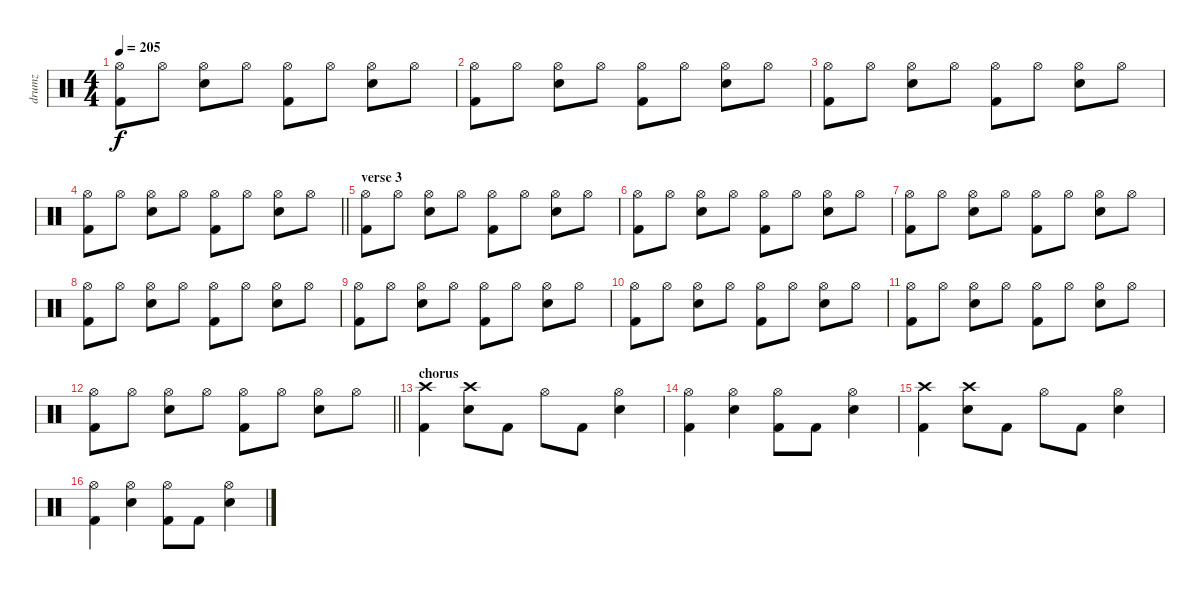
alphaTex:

\track ("drumz" "drumz") {instrument percussion}
\staff {score}
\articulation defaults
\ts (4 4)
\tempo 205
\clef neutral
\ks c
("Hi-Hat (open)" "Kick (hit) 2").8{dy f} "Hi-Hat (open)".8 ("Hi-Hat (open)" "Electric Snare (hit)").8 "Hi-Hat (open)".8 ("Hi-Hat (open)" "Kick (hit) 2").8 "Hi-Hat (open)".8 ("Hi-Hat (open)" "Electric Snare (hit)").8 "Hi-Hat (open)".8 |
("Hi-Hat (open)" "Kick (hit) 2").8 "Hi-Hat (open)".8 ("Hi-Hat (open)" "Electric Snare (hit)").8 "Hi-Hat (open)".8 ("Hi-Hat (open)" "Kick (hit) 2").8 "Hi-Hat (open)".8 ("Hi-Hat (open)" "Electric Snare (hit)").8 "Hi-Hat (open)".8 |
("Hi-Hat (open)" "Kick (hit) 2").8 "Hi-Hat (open)".8 ("Hi-Hat (open)" "Electric Snare (hit)").8 "Hi-Hat (open)".8 ("Hi-Hat (open)" "Kick (hit) 2").8 "Hi-Hat (open)".8 ("Hi-Hat (open)" "Electric Snare (hit)").8 "Hi-Hat (open)".8 |
\barLineRight lightlight
("Hi-Hat (open)" "Kick (hit) 2").8 "Hi-Hat (open)".8 ("Hi-Hat (open)" "Electric Snare (hit)").8 "Hi-Hat (open)".8 ("Hi-Hat (open)" "Kick (hit) 2").8 "Hi-Hat (open)".8 ("Hi-Hat (open)" "Electric Snare (hit)").8 "Hi-Hat (open)".8 |
\section ("" "verse 3")
("Hi-Hat (open)" "Kick (hit) 2").8 "Hi-Hat (open)".8 ("Hi-Hat (open)" "Electric Snare (hit)").8 "Hi-Hat (open)".8 ("Hi-Hat (open)" "Kick (hit) 2").8 "Hi-Hat (open)".8 ("Hi-Hat (open)" "Electric Snare (hit)").8 "Hi-Hat (open)".8 |
("Hi-Hat (open)" "Kick (hit) 2").8 "Hi-Hat (open)".8 ("Hi-Hat (open)" "Electric Snare (hit)").8 "Hi-Hat (open)".8 ("Hi-Hat (open)" "Kick (hit) 2").8 "Hi-Hat (open)".8 ("Hi-Hat (open)" "Electric Snare (hit)").8 "Hi-Hat (open)".8 |
("Hi-Hat (open)" "Kick (hit) 2").8 "Hi-Hat (open)".8 ("Hi-Hat (open)" "Electric Snare (hit)").8 "Hi-Hat (open)".8 ("Hi-Hat (open)" "Kick (hit) 2").8 "Hi-Hat (open)".8 ("Hi-Hat (open)" "Electric Snare (hit)").8 "Hi-Hat (open)".8 |
("Hi-Hat (open)" "Kick (hit) 2").8 "Hi-Hat (open)".8 ("Hi-Hat (open)" "Electric Snare (hit)").8 "Hi-Hat (open)".8 ("Hi-Hat (open)" "Kick (hit) 2").8 "Hi-Hat (open)".8 ("Hi-Hat (open)" "Electric Snare (hit)").8 "Hi-Hat (open)".8 |
("Hi-Hat (open)" "Kick (hit) 2").8 "Hi-Hat (open)".8 ("Hi-Hat (open)" "Electric Snare (hit)").8 "Hi-Hat (open)".8 ("Hi-Hat (open)" "Kick (hit) 2").8 "Hi-Hat (open)".8 ("Hi-Hat (open)" "Electric Snare (hit)").8 "Hi-Hat (open)".8 |
("Hi-Hat (open)" "Kick (hit) 2").8 "Hi-Hat (open)".8 ("Hi-Hat (open)" "Electric Snare (hit)").8 "Hi-Hat (open)".8 ("Hi-Hat (open)" "Kick (hit) 2").8 "Hi-Hat (open)".8 ("Hi-Hat (open)" "Electric Snare (hit)").8 "Hi-Hat (open)".8 |
("Hi-Hat (open)" "Kick (hit) 2").8 "Hi-Hat (open)".8 ("Hi-Hat (open)" "Electric Snare (hit)").8 "Hi-Hat (open)".8 ("Hi-Hat (open)" "Kick (hit) 2").8 "Hi-Hat (open)".8 ("Hi-Hat (open)" "Electric Snare (hit)").8 "Hi-Hat (open)".8 |
\barLineRight lightlight
("Hi-Hat (open)" "Kick (hit) 2").8 "Hi-Hat (open)".8 ("Hi-Hat (open)" "Electric Snare (hit)").8 "Hi-Hat (open)".8 ("Hi-Hat (open)" "Kick (hit) 2").8 "Hi-Hat (open)".8 ("Hi-Hat (open)" "Electric Snare (hit)").8 "Hi-Hat (open)".8 |
\section ("" "chorus")
("Crash high (hit)" "Kick (hit) 2").4 ("Crash high (hit)" "Electric Snare (hit)").8 "Kick (hit) 2".8 "Hi-Hat (open)".8 "Kick (hit) 2".8 ("Hi-Hat (open)" "Electric Snare (hit)").4 |
("Hi-Hat (open)" "Kick (hit) 2").4 ("Hi-Hat (open)" "Electric Snare (hit)").4 ("Hi-Hat (open)" "Kick (hit) 2").8 "Kick (hit) 2".8 ("Hi-Hat (open)" "Electric Snare (hit)").4 |
("Crash high (hit)" "Kick (hit) 2").4 ("Crash high (hit)" "Electric Snare (hit)").8 "Kick (hit) 2".8 "Hi-Hat (open)".8 "Kick (hit) 2".8 ("Hi-Hat (open)" "Electric Snare (hit)").4 |
("Hi-Hat (open)" "Kick (hit) 2").4 ("Hi-Hat (open)" "Electric Snare (hit)").4 ("Hi-Hat (open)" "Kick (hit) 2").8 "Kick (hit) 2".8 ("Hi-Hat (open)" "Electric Snare (hit)").4
